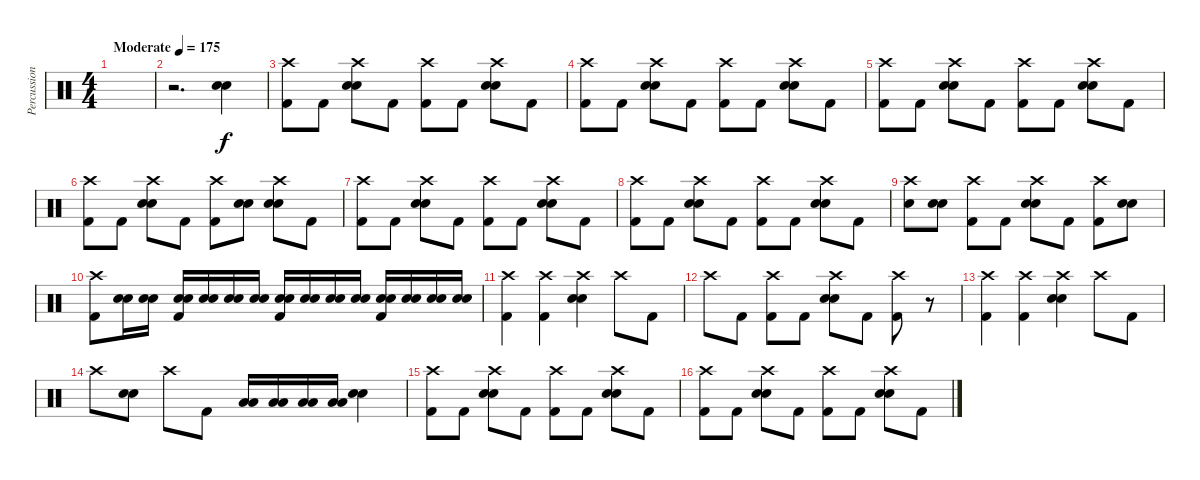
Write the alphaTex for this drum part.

\track ("Percussion" "Percussion") {instrument percussion}
\staff {score}
\articulation defaults
\ts (4 4)
\tempo (175 "Moderate")
\clef neutral
\ks c
|
r.2{d} ("Snare (hit) 2" "Electric Snare (hit)").4 |
("Crash high (hit)" "Kick (hit) 2").8 "Kick (hit) 2".8 ("Crash high (hit)" "Snare (hit) 2" "Electric Snare (hit)").8 "Kick (hit) 2".8 ("Crash high (hit)" "Kick (hit) 2").8 "Kick (hit) 2".8 ("Crash high (hit)" "Snare (hit) 2" "Electric Snare (hit)").8 "Kick (hit) 2".8 |
("Crash high (hit)" "Kick (hit) 2").8 "Kick (hit) 2".8 ("Crash high (hit)" "Snare (hit) 2" "Electric Snare (hit)").8 "Kick (hit) 2".8 ("Crash high (hit)" "Kick (hit) 2").8 "Kick (hit) 2".8 ("Crash high (hit)" "Snare (hit) 2" "Electric Snare (hit)").8 "Kick (hit) 2".8 |
("Crash high (hit)" "Kick (hit) 2").8 "Kick (hit) 2".8 ("Crash high (hit)" "Snare (hit) 2" "Electric Snare (hit)").8 "Kick (hit) 2".8 ("Crash high (hit)" "Kick (hit) 2").8 "Kick (hit) 2".8 ("Crash high (hit)" "Snare (hit) 2" "Electric Snare (hit)").8 "Kick (hit) 2".8 |
("Crash high (hit)" "Kick (hit) 2").8 "Kick (hit) 2".8 ("Crash high (hit)" "Snare (hit) 2" "Electric Snare (hit)").8 "Kick (hit) 2".8 ("Crash high (hit)" "Kick (hit) 2").8 ("Snare (hit) 2" "Electric Snare (hit)").8 ("Crash high (hit)" "Snare (hit) 2" "Electric Snare (hit)").8 "Kick (hit) 2".8 |
("Crash high (hit)" "Kick (hit) 2").8 "Kick (hit) 2".8 ("Crash high (hit)" "Snare (hit) 2" "Electric Snare (hit)").8 "Kick (hit) 2".8 ("Crash high (hit)" "Kick (hit) 2").8 "Kick (hit) 2".8 ("Crash high (hit)" "Snare (hit) 2" "Electric Snare (hit)").8 "Kick (hit) 2".8 |
("Crash high (hit)" "Kick (hit) 2").8 "Kick (hit) 2".8 ("Crash high (hit)" "Snare (hit) 2" "Electric Snare (hit)").8 "Kick (hit) 2".8 ("Crash high (hit)" "Kick (hit) 2").8 "Kick (hit) 2".8 ("Crash high (hit)" "Snare (hit) 2" "Electric Snare (hit)").8 "Kick (hit) 2".8 |
("Crash high (hit)" "Snare (hit) 2").8 ("Snare (hit) 2" "Electric Snare (hit)").8 ("Crash high (hit)" "Kick (hit) 2").8 "Kick (hit) 2".8 ("Crash high (hit)" "Snare (hit) 2" "Electric Snare (hit)").8 "Kick (hit) 2".8 ("Crash high (hit)" "Kick (hit) 2").8 ("Snare (hit) 2" "Electric Snare (hit)").8 |
("Crash high (hit)" "Kick (hit) 2").8 ("Snare (hit) 2" "Electric Snare (hit)").16 ("Snare (hit) 2" "Electric Snare (hit)").16 ("Snare (hit) 2" "Electric Snare (hit)" "Kick (hit) 2").16 ("Snare (hit) 2" "Electric Snare (hit)").16 ("Snare (hit) 2" "Electric Snare (hit)").16 ("Snare (hit) 2" "Electric Snare (hit)").16 ("Snare (hit) 2" "Electric Snare (hit)" "Kick (hit) 2").16 ("Snare (hit) 2" "Electric Snare (hit)").16 ("Snare (hit) 2" "Electric Snare (hit)").16 ("Snare (hit) 2" "Electric Snare (hit)").16 ("Snare (hit) 2" "Electric Snare (hit)" "Kick (hit) 2").16 ("Snare (hit) 2" "Electric Snare (hit)").16 ("Snare (hit) 2" "Electric Snare (hit)").16 ("Snare (hit) 2" "Electric Snare (hit)").16 |
("Crash high (hit)" "Kick (hit) 2").4 ("Crash high (hit)" "Kick (hit) 2").4 ("Crash high (hit)" "Snare (hit) 2" "Electric Snare (hit)").4 "Crash high (hit)".8 "Kick (hit) 2".8 |
"Crash high (hit)".8 "Kick (hit) 2".8 ("Crash high (hit)" "Kick (hit) 2").8 "Kick (hit) 2".8 ("Crash high (hit)" "Snare (hit) 2" "Electric Snare (hit)").8 "Kick (hit) 2".8 ("Crash high (hit)" "Kick (hit) 2").8 r.8 |
("Crash high (hit)" "Kick (hit) 2").4 ("Crash high (hit)" "Kick (hit) 2").4 ("Crash high (hit)" "Snare (hit) 2" "Electric Snare (hit)").4 "Crash high (hit)".8 "Kick (hit) 2".8 |
"Crash high (hit)".8 ("Snare (hit) 2" "Electric Snare (hit)").8 "Crash high (hit)".8 "Kick (hit) 2".8 ("Low Floor Tom (hit)" "Low Tom (hit)").16 ("Low Floor Tom (hit)" "Low Tom (hit)").16 ("Low Floor Tom (hit)" "Low Tom (hit)").16 ("Low Floor Tom (hit)" "Low Tom (hit)").16 ("Snare (hit) 2" "Electric Snare (hit)").4 |
("Crash high (hit)" "Kick (hit) 2").8 "Kick (hit) 2".8 ("Crash high (hit)" "Snare (hit) 2" "Electric Snare (hit)").8 "Kick (hit) 2".8 ("Crash high (hit)" "Kick (hit) 2").8 "Kick (hit) 2".8 ("Crash high (hit)" "Snare (hit) 2" "Electric Snare (hit)").8 "Kick (hit) 2".8 |
("Crash high (hit)" "Kick (hit) 2").8 "Kick (hit) 2".8 ("Crash high (hit)" "Snare (hit) 2" "Electric Snare (hit)").8 "Kick (hit) 2".8 ("Crash high (hit)" "Kick (hit) 2").8 "Kick (hit) 2".8 ("Crash high (hit)" "Snare (hit) 2" "Electric Snare (hit)").8 "Kick (hit) 2".8
